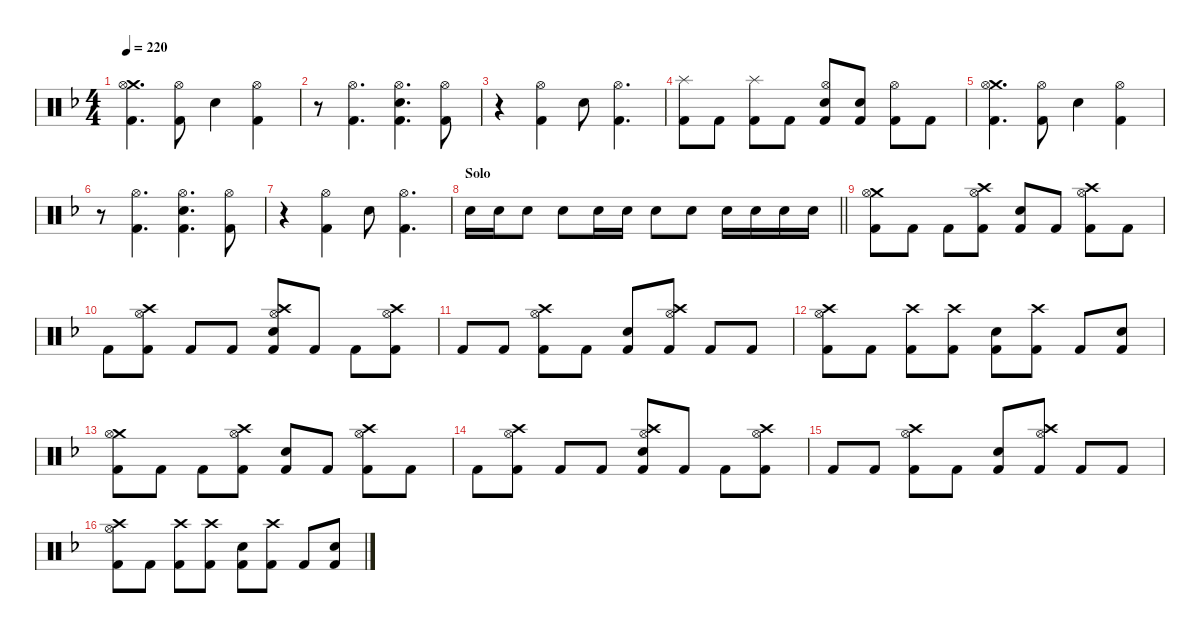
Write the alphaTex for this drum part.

\hideDynamics
\bracketExtendMode nobrackets
\singleTrackTrackNamePolicy hidden
\multiTrackTrackNamePolicy hidden
\firstSystemTrackNameMode fullname
\firstSystemTrackNameOrientation horizontal
\otherSystemsTrackNameOrientation horizontal
\track ("Drumkit" "Drums") {instrument percussion}
\staff {score}
\articulation defaults
\ts (4 4)
\tempo 220
\clef neutral
\ks dminor
("Crash medium (hit)"{acc forcenatural} "Hi-Hat (open)"{acc forcenatural} "Kick (hit) 2"{acc forcenatural}).4{d dy f beam Down} ("Hi-Hat (open)"{acc forcenatural} "Kick (hit) 2"{acc forcenatural}).8{beam Down} "Snare (hit) 2"{acc forcenatural}.4{beam Down} ("Hi-Hat (open)"{acc forcenatural} "Kick (hit) 2"{acc forcenatural}).4{beam Down} |
r.8{beam Down} ("Hi-Hat (open)"{acc forcenatural} "Kick (hit) 2"{acc forcenatural}).4{d beam Down} ("Hi-Hat (open)"{acc forcenatural} "Snare (hit) 2"{acc forcenatural} "Kick (hit) 2"{acc forcenatural}).4{d beam Down} ("Hi-Hat (open)"{acc forcenatural} "Kick (hit) 2"{acc forcenatural}).8{beam Down} |
r.4{beam Down} ("Hi-Hat (open)"{acc forcenatural} "Kick (hit) 2"{acc forcenatural}).4{beam Down} "Snare (hit) 2"{acc forcenatural}.8{beam Down} ("Hi-Hat (open)"{acc forcenatural} "Kick (hit) 2"{acc forcenatural}).4{d beam Down} |
("Splash (hit)"{acc forcenatural} "Kick (hit) 2"{acc forcenatural}).8{beam Down} "Kick (hit) 2"{acc forcenatural}.8{beam Down} ("Splash (hit)"{acc forcenatural} "Kick (hit) 2"{acc forcenatural}).8{beam Down} "Kick (hit) 2"{acc forcenatural}.8{beam Down} ("Hi-Hat (open)"{acc forcenatural} "Snare (hit) 2"{acc forcenatural} "Kick (hit) 2"{acc forcenatural}).8{beam Up} ("Snare (hit) 2"{acc forcenatural} "Kick (hit) 2"{acc forcenatural}).8{beam Up} ("Hi-Hat (open)"{acc forcenatural} "Kick (hit) 2"{acc forcenatural}).8{beam Down} "Kick (hit) 2"{acc forcenatural}.8{beam Down} |
("Crash medium (hit)"{acc forcenatural} "Hi-Hat (open)"{acc forcenatural} "Kick (hit) 2"{acc forcenatural}).4{d beam Down} ("Hi-Hat (open)"{acc forcenatural} "Kick (hit) 2"{acc forcenatural}).8{beam Down} "Snare (hit) 2"{acc forcenatural}.4{beam Down} ("Hi-Hat (open)"{acc forcenatural} "Kick (hit) 2"{acc forcenatural}).4{beam Down} |
r.8{beam Down} ("Hi-Hat (open)"{acc forcenatural} "Kick (hit) 2"{acc forcenatural}).4{d beam Down} ("Hi-Hat (open)"{acc forcenatural} "Snare (hit) 2"{acc forcenatural} "Kick (hit) 2"{acc forcenatural}).4{d beam Down} ("Hi-Hat (open)"{acc forcenatural} "Kick (hit) 2"{acc forcenatural}).8{beam Down} |
r.4{beam Down} ("Hi-Hat (open)"{acc forcenatural} "Kick (hit) 2"{acc forcenatural}).4{beam Down} "Snare (hit) 2"{acc forcenatural}.8{beam Down} ("Hi-Hat (open)"{acc forcenatural} "Kick (hit) 2"{acc forcenatural}).4{d beam Down} |
\section ("" "Solo")
\barLineRight lightlight "Snare (hit) 2"{acc forcenatural}.16{beam Down} "Snare (hit) 2"{acc forcenatural}.16{beam Down} "Snare (hit) 2"{acc forcenatural}.8{beam Down} "Snare (hit) 2"{acc forcenatural}.8{beam Down} "Snare (hit) 2"{acc forcenatural}.16{beam Down} "Snare (hit) 2"{acc forcenatural}.16{beam Down} "Snare (hit) 2"{acc forcenatural}.8{beam Down} "Snare (hit) 2"{acc forcenatural}.8{beam Down} "Snare (hit) 2"{acc forcenatural}.16{beam Down} "Snare (hit) 2"{acc forcenatural}.16{beam Down} "Snare (hit) 2"{acc forcenatural}.16{beam Down} "Snare (hit) 2"{acc forcenatural}.16{beam Down}
|
("Crash medium (hit)"{acc forcenatural} "Hi-Hat (open)"{acc forcenatural} "Kick (hit) 2"{acc forcenatural}).8{beam Down} "Kick (hit) 2"{acc forcenatural}.8{beam Down} "Kick (hit) 2"{acc forcenatural}.8{beam Down} ("Crash high (hit)"{acc forcenatural} "Hi-Hat (open)"{acc forcenatural} "Kick (hit) 2"{acc forcenatural}).8{beam Down} ("Snare (hit) 2"{acc forcenatural} "Kick (hit) 2"{acc forcenatural}).8{beam Up} "Kick (hit) 2"{acc forcenatural}.8{beam Up} ("Crash high (hit)"{acc forcenatural} "Hi-Hat (open)"{acc forcenatural} "Kick (hit) 2"{acc forcenatural}).8{beam Down} "Kick (hit) 2"{acc forcenatural}.8{beam Down} |
"Kick (hit) 2"{acc forcenatural}.8{beam Down} ("Crash high (hit)"{acc forcenatural} "Hi-Hat (open)"{acc forcenatural} "Kick (hit) 2"{acc forcenatural}).8{beam Down} "Kick (hit) 2"{acc forcenatural}.8{beam Up} "Kick (hit) 2"{acc forcenatural}.8{beam Up} ("Crash high (hit)"{acc forcenatural} "Hi-Hat (open)"{acc forcenatural} "Snare (hit) 2"{acc forcenatural} "Kick (hit) 2"{acc forcenatural}).8{beam Up} "Kick (hit) 2"{acc forcenatural}.8{beam Up} "Kick (hit) 2"{acc forcenatural}.8{beam Down} ("Crash high (hit)"{acc forcenatural} "Hi-Hat (open)"{acc forcenatural} "Kick (hit) 2"{acc forcenatural}).8{beam Down} |
"Kick (hit) 2"{acc forcenatural}.8{beam Up} "Kick (hit) 2"{acc forcenatural}.8{beam Up} ("Crash high (hit)"{acc forcenatural} "Hi-Hat (open)"{acc forcenatural} "Kick (hit) 2"{acc forcenatural}).8{beam Down} "Kick (hit) 2"{acc forcenatural}.8{beam Down} ("Snare (hit) 2"{acc forcenatural} "Kick (hit) 2"{acc forcenatural}).8{beam Up} ("Crash high (hit)"{acc forcenatural} "Hi-Hat (open)"{acc forcenatural} "Kick (hit) 2"{acc forcenatural}).8{beam Up} "Kick (hit) 2"{acc forcenatural}.8{beam Up} "Kick (hit) 2"{acc forcenatural}.8{beam Up} |
("Crash high (hit)"{acc forcenatural} "Hi-Hat (open)"{acc forcenatural} "Kick (hit) 2"{acc forcenatural}).8{beam Down} "Kick (hit) 2"{acc forcenatural}.8{beam Down} ("Crash high (hit)"{acc forcenatural} "Kick (hit) 2"{acc forcenatural}).8{beam Down} ("Crash high (hit)"{acc forcenatural} "Kick (hit) 2"{acc forcenatural}).8{beam Down} ("Snare (hit) 2"{acc forcenatural} "Kick (hit) 2"{acc forcenatural}).8{beam Down} ("Crash high (hit)"{acc forcenatural} "Kick (hit) 2"{acc forcenatural}).8{beam Down} "Kick (hit) 2"{acc forcenatural}.8{beam Up} ("Snare (hit) 2"{acc forcenatural} "Kick (hit) 2"{acc forcenatural}).8{beam Up} |
("Crash medium (hit)"{acc forcenatural} "Hi-Hat (open)"{acc forcenatural} "Kick (hit) 2"{acc forcenatural}).8{beam Down} "Kick (hit) 2"{acc forcenatural}.8{beam Down} "Kick (hit) 2"{acc forcenatural}.8{beam Down} ("Crash high (hit)"{acc forcenatural} "Hi-Hat (open)"{acc forcenatural} "Kick (hit) 2"{acc forcenatural}).8{beam Down} ("Snare (hit) 2"{acc forcenatural} "Kick (hit) 2"{acc forcenatural}).8{beam Up} "Kick (hit) 2"{acc forcenatural}.8{beam Up} ("Crash high (hit)"{acc forcenatural} "Hi-Hat (open)"{acc forcenatural} "Kick (hit) 2"{acc forcenatural}).8{beam Down} "Kick (hit) 2"{acc forcenatural}.8{beam Down} |
"Kick (hit) 2"{acc forcenatural}.8{beam Down} ("Crash high (hit)"{acc forcenatural} "Hi-Hat (open)"{acc forcenatural} "Kick (hit) 2"{acc forcenatural}).8{beam Down} "Kick (hit) 2"{acc forcenatural}.8{beam Up} "Kick (hit) 2"{acc forcenatural}.8{beam Up} ("Crash high (hit)"{acc forcenatural} "Hi-Hat (open)"{acc forcenatural} "Snare (hit) 2"{acc forcenatural} "Kick (hit) 2"{acc forcenatural}).8{beam Up} "Kick (hit) 2"{acc forcenatural}.8{beam Up} "Kick (hit) 2"{acc forcenatural}.8{beam Down} ("Crash high (hit)"{acc forcenatural} "Hi-Hat (open)"{acc forcenatural} "Kick (hit) 2"{acc forcenatural}).8{beam Down} |
"Kick (hit) 2"{acc forcenatural}.8{beam Up} "Kick (hit) 2"{acc forcenatural}.8{beam Up} ("Crash high (hit)"{acc forcenatural} "Hi-Hat (open)"{acc forcenatural} "Kick (hit) 2"{acc forcenatural}).8{beam Down} "Kick (hit) 2"{acc forcenatural}.8{beam Down} ("Snare (hit) 2"{acc forcenatural} "Kick (hit) 2"{acc forcenatural}).8{beam Up} ("Crash high (hit)"{acc forcenatural} "Hi-Hat (open)"{acc forcenatural} "Kick (hit) 2"{acc forcenatural}).8{beam Up} "Kick (hit) 2"{acc forcenatural}.8{beam Up} "Kick (hit) 2"{acc forcenatural}.8{beam Up} |
("Crash high (hit)"{acc forcenatural} "Hi-Hat (open)"{acc forcenatural} "Kick (hit) 2"{acc forcenatural}).8{beam Down} "Kick (hit) 2"{acc forcenatural}.8{beam Down} ("Crash high (hit)"{acc forcenatural} "Kick (hit) 2"{acc forcenatural}).8{beam Down} ("Crash high (hit)"{acc forcenatural} "Kick (hit) 2"{acc forcenatural}).8{beam Down} ("Snare (hit) 2"{acc forcenatural} "Kick (hit) 2"{acc forcenatural}).8{beam Down} ("Crash high (hit)"{acc forcenatural} "Kick (hit) 2"{acc forcenatural}).8{beam Down} "Kick (hit) 2"{acc forcenatural}.8{beam Up} ("Snare (hit) 2"{acc forcenatural} "Kick (hit) 2"{acc forcenatural}).8{beam Up}
